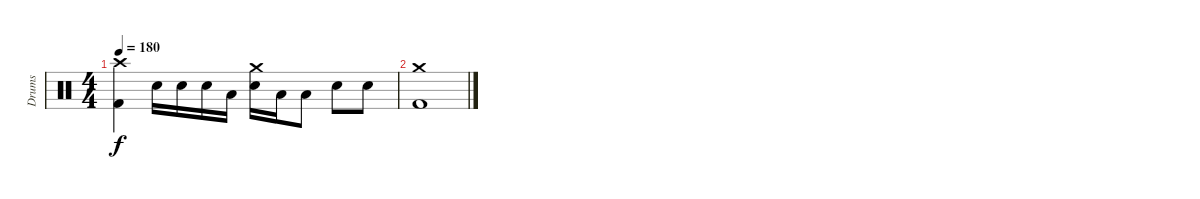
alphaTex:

\track ("Drums" "Drums") {instrument percussion}
\staff {score}
\articulation defaults
\ts (4 4)
\tempo 180
\clef neutral
\ks c
("Kick (hit) 2" "Crash high (hit)").4{dy f} "Snare (hit) 2".16 "Snare (hit) 2".16 "Snare (hit) 2".16 "Low Tom (hit)".16 ("Crash medium (hit)" "Snare (hit) 2").16 "Low Tom (hit)".16 "Low Tom (hit)".8 "Snare (hit) 2".8 "Snare (hit) 2".8 |
("Kick (hit) 2" "Crash medium (hit)").1
